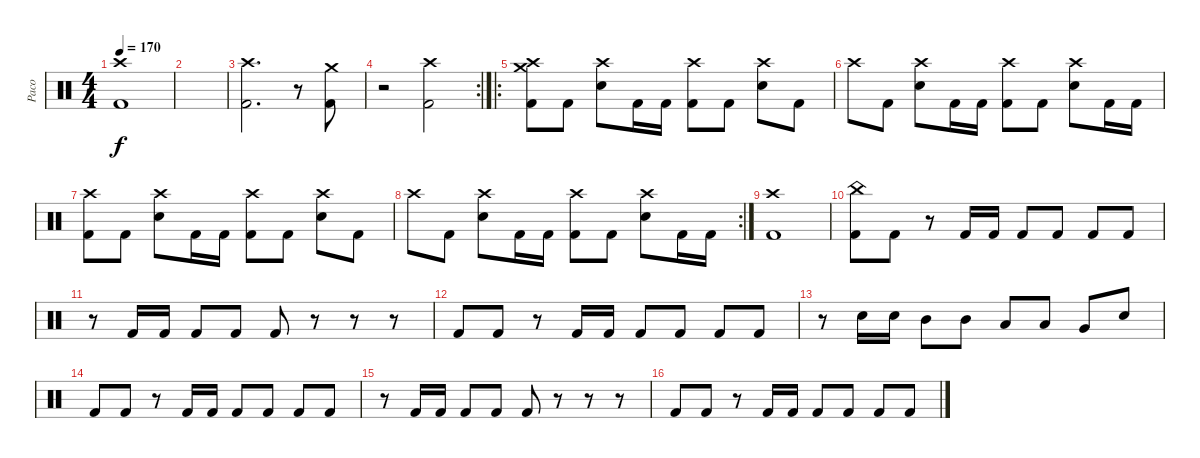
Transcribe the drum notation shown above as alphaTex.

\track ("Paco" "Paco") {instrument percussion}
\staff {score}
\articulation defaults
\ts (4 4)
\tempo 170
\clef neutral
\ks c
("Crash high (hit)" "Kick (hit) 2").1{dy f} |
|
("Crash high (hit)" "Kick (hit) 2").2{d} r.8 ("Crash medium (hit)" "Kick (hit) 2").8 |
\rc 2
r.2 ("Crash high (hit)" "Kick (hit) 2").2 |
\ro
("Crash medium (hit)" "Crash high (hit)" "Kick (hit) 2").8 "Kick (hit) 2".8 ("Crash high (hit)" "Electric Snare (hit)").8 "Kick (hit) 2".16 "Kick (hit) 2".16 ("Crash high (hit)" "Kick (hit) 2").8 "Kick (hit) 2".8 ("Crash high (hit)" "Electric Snare (hit)").8 "Kick (hit) 2".8 |
"Crash high (hit)".8 "Kick (hit) 2".8 ("Crash high (hit)" "Electric Snare (hit)").8 "Kick (hit) 2".16 "Kick (hit) 2".16 ("Crash high (hit)" "Kick (hit) 2").8 "Kick (hit) 2".8 ("Crash high (hit)" "Electric Snare (hit)").8 "Kick (hit) 2".16 "Kick (hit) 2".16 |
("Crash high (hit)" "Kick (hit) 2").8 "Kick (hit) 2".8 ("Crash high (hit)" "Electric Snare (hit)").8 "Kick (hit) 2".16 "Kick (hit) 2".16 ("Crash high (hit)" "Kick (hit) 2").8 "Kick (hit) 2".8 ("Crash high (hit)" "Electric Snare (hit)").8 "Kick (hit) 2".8 |
\rc 2 "Crash high (hit)".8 "Kick (hit) 2".8
("Crash high (hit)" "Electric Snare (hit)").8 "Kick (hit) 2".16 "Kick (hit) 2".16 ("Crash high (hit)" "Kick (hit) 2").8 "Kick (hit) 2".8 ("Crash high (hit)" "Electric Snare (hit)").8 "Kick (hit) 2".16 "Kick (hit) 2".16 |
("Crash high (hit)" "Kick (hit) 2").1 |
("China (hit)" "Kick (hit) 2").8 "Kick (hit) 2".8 r.8 "Kick (hit) 2".16 "Kick (hit) 2".16 "Kick (hit) 2".8 "Kick (hit) 2".8 "Kick (hit) 2".8 "Kick (hit) 2".8 |
r.8 "Kick (hit) 2".16 "Kick (hit) 2".16 "Kick (hit) 2".8 "Kick (hit) 2".8 "Kick (hit) 2".8 r.8 r.8 r.8 |
"Kick (hit) 2".8 "Kick (hit) 2".8 r.8 "Kick (hit) 2".16 "Kick (hit) 2".16 "Kick (hit) 2".8 "Kick (hit) 2".8 "Kick (hit) 2".8 "Kick (hit) 2".8 |
r.8 "Electric Snare (hit)".16 "Electric Snare (hit)".16 "Mid Tom (hit)".8 "Mid Tom (hit)".8 "Low Tom (hit)".8 "Low Tom (hit)".8 "Very Low Tom (hit)".8 "Electric Snare (hit)".8 |
"Kick (hit) 2".8 "Kick (hit) 2".8 r.8 "Kick (hit) 2".16 "Kick (hit) 2".16 "Kick (hit) 2".8 "Kick (hit) 2".8 "Kick (hit) 2".8 "Kick (hit) 2".8 |
r.8 "Kick (hit) 2".16 "Kick (hit) 2".16 "Kick (hit) 2".8 "Kick (hit) 2".8 "Kick (hit) 2".8 r.8 r.8 r.8 |
"Kick (hit) 2".8 "Kick (hit) 2".8 r.8 "Kick (hit) 2".16 "Kick (hit) 2".16 "Kick (hit) 2".8 "Kick (hit) 2".8 "Kick (hit) 2".8 "Kick (hit) 2".8
